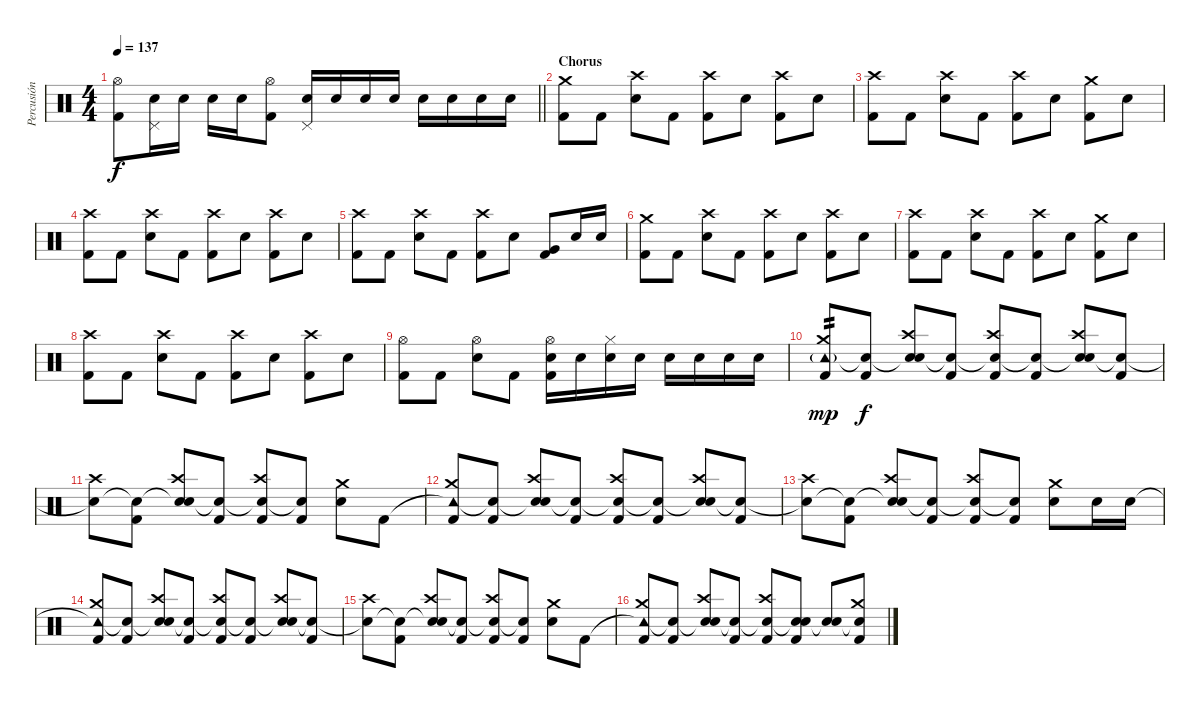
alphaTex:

\track ("Percusión" "Percusión") {instrument percussion}
\staff {score}
\articulation defaults
\ts (4 4)
\tempo 137
\clef neutral
\barLineRight lightlight
\ks c
("Hi-Hat (open)" "Kick (hit) 2").8{dy f} ("Pedal Hi-Hat (hit)" "Electric Snare (hit)").16 "Electric Snare (hit)".16 "Electric Snare (hit)".16 "Electric Snare (hit)".16 ("Hi-Hat (open)" "Kick (hit) 2").8 ("Pedal Hi-Hat (hit)" "Electric Snare (hit)").16 "Electric Snare (hit)".16 "Electric Snare (hit)".16 "Electric Snare (hit)".16 "Electric Snare (hit)".16 "Electric Snare (hit)".16 "Electric Snare (hit)".16 "Electric Snare (hit)".16 |
\section ("" "Chorus")
("Crash medium (hit)" "Kick (hit) 2").8 "Kick (hit) 2".8 ("Crash high (hit)" "Electric Snare (hit)").8 "Kick (hit) 2".8 ("Crash high (hit)" "Kick (hit) 2").8 "Electric Snare (hit)".8 ("Crash high (hit)" "Kick (hit) 2").8 "Electric Snare (hit)".8 |
("Crash high (hit)" "Kick (hit) 2").8 "Kick (hit) 2".8 ("Crash high (hit)" "Electric Snare (hit)").8 "Kick (hit) 2".8 ("Crash high (hit)" "Kick (hit) 2").8 "Electric Snare (hit)".8 ("Crash medium (hit)" "Kick (hit) 2").8 "Electric Snare (hit)".8 |
("Crash high (hit)" "Kick (hit) 2").8 "Kick (hit) 2".8 ("Crash high (hit)" "Electric Snare (hit)").8 "Kick (hit) 2".8 ("Crash high (hit)" "Kick (hit) 2").8 "Electric Snare (hit)".8 ("Crash high (hit)" "Kick (hit) 2").8 "Electric Snare (hit)".8 |
("Crash high (hit)" "Kick (hit) 2").8 "Kick (hit) 2".8 ("Crash high (hit)" "Electric Snare (hit)").8 "Kick (hit) 2".8 ("Crash high (hit)" "Kick (hit) 2").8 "Electric Snare (hit)".8 ("Very Low Tom (hit)" "Kick (hit) 2").8 "Electric Snare (hit)".16 "Electric Snare (hit)".16 |
("Crash medium (hit)" "Kick (hit) 2").8 "Kick (hit) 2".8 ("Crash high (hit)" "Electric Snare (hit)").8 "Kick (hit) 2".8 ("Crash high (hit)" "Kick (hit) 2").8 "Electric Snare (hit)".8 ("Crash high (hit)" "Kick (hit) 2").8 "Electric Snare (hit)".8 |
("Crash high (hit)" "Kick (hit) 2").8 "Kick (hit) 2".8 ("Crash high (hit)" "Electric Snare (hit)").8 "Kick (hit) 2".8 ("Crash high (hit)" "Kick (hit) 2").8 "Electric Snare (hit)".8 ("Crash medium (hit)" "Kick (hit) 2").8 "Electric Snare (hit)".8 |
("Crash high (hit)" "Kick (hit) 2").8 "Kick (hit) 2".8 ("Crash high (hit)" "Electric Snare (hit)").8 "Kick (hit) 2".8 ("Crash high (hit)" "Kick (hit) 2").8 "Electric Snare (hit)".8 ("Crash high (hit)" "Kick (hit) 2").8 "Electric Snare (hit)".8 |
("Hi-Hat (open)" "Kick (hit) 2").8 "Kick (hit) 2".8 ("Hi-Hat (open)" "Electric Snare (hit)").8 "Kick (hit) 2".8 ("Hi-Hat (open)" "Electric Snare (hit)" "Kick (hit) 2").16 "Electric Snare (hit)".16 ("Hi-Hat (closed)" "Electric Snare (hit)").16 "Electric Snare (hit)".16 "Electric Snare (hit)".16 "Electric Snare (hit)".16 "Electric Snare (hit)".16 "Electric Snare (hit)".16 |
("Tambourine (hit)"{g} "Crash medium (hit)" "Kick (hit) 2").8{tp 2 dy mp} ("Snare (hit)"{t} "Kick (hit) 2").8{dy f} ("Snare (hit)"{t} "Crash high (hit)" "Electric Snare (hit)").8 ("Snare (hit)"{t} "Kick (hit) 2").8 ("Snare (hit)"{t} "Crash high (hit)" "Kick (hit) 2").8 ("Snare (hit)"{t} "Kick (hit) 2").8 ("Snare (hit)"{t} "Crash high (hit)" "Electric Snare (hit)").8 ("Snare (hit)"{t} "Kick (hit) 2").8 |
("Snare (hit)"{t} "Crash high (hit)").8 ("Snare (hit)"{t} "Kick (hit) 2").8 ("Snare (hit)"{t} "Crash high (hit)" "Electric Snare (hit)").8 ("Snare (hit)"{t} "Kick (hit) 2").8 ("Snare (hit)"{t} "Crash high (hit)" "Kick (hit) 2").8 ("Snare (hit)"{t} "Kick (hit) 2").8 ("Crash medium (hit)" "Electric Snare (hit)").8 "Kick (hit) 2".8 |
("Tambourine (hit)"{t} "Crash medium (hit)" "Kick (hit) 2").8 ("Snare (hit)"{t} "Kick (hit) 2").8 ("Snare (hit)"{t} "Crash high (hit)" "Electric Snare (hit)").8 ("Snare (hit)"{t} "Kick (hit) 2").8 ("Snare (hit)"{t} "Crash high (hit)" "Kick (hit) 2").8 ("Snare (hit)"{t} "Kick (hit) 2").8 ("Snare (hit)"{t} "Crash high (hit)" "Electric Snare (hit)").8 ("Snare (hit)"{t} "Kick (hit) 2").8 |
("Snare (hit)"{t} "Crash high (hit)").8 ("Snare (hit)"{t} "Kick (hit) 2").8 ("Snare (hit)"{t} "Crash high (hit)" "Electric Snare (hit)").8 ("Snare (hit)"{t} "Kick (hit) 2").8 ("Snare (hit)"{t} "Crash high (hit)" "Kick (hit) 2").8 ("Snare (hit)"{t} "Kick (hit) 2").8 ("Crash medium (hit)" "Electric Snare (hit)").8 "Electric Snare (hit)".16 "Electric Snare (hit)".16 |
("Tambourine (hit)"{t} "Crash medium (hit)" "Kick (hit) 2").8 ("Snare (hit)"{t} "Kick (hit) 2").8 ("Snare (hit)"{t} "Crash high (hit)" "Electric Snare (hit)").8 ("Snare (hit)"{t} "Kick (hit) 2").8 ("Snare (hit)"{t} "Crash high (hit)" "Kick (hit) 2").8 ("Snare (hit)"{t} "Kick (hit) 2").8 ("Snare (hit)"{t} "Crash high (hit)" "Electric Snare (hit)").8 ("Snare (hit)"{t} "Kick (hit) 2").8 |
("Snare (hit)"{t} "Crash high (hit)").8 ("Snare (hit)"{t} "Kick (hit) 2").8 ("Snare (hit)"{t} "Crash high (hit)" "Electric Snare (hit)").8 ("Snare (hit)"{t} "Kick (hit) 2").8 ("Snare (hit)"{t} "Crash high (hit)" "Kick (hit) 2").8 ("Snare (hit)"{t} "Kick (hit) 2").8 ("Crash medium (hit)" "Electric Snare (hit)").8 "Kick (hit) 2".8 |
("Tambourine (hit)"{t} "Crash medium (hit)" "Kick (hit) 2").8 ("Snare (hit)"{t} "Kick (hit) 2").8 ("Snare (hit)"{t} "Crash high (hit)" "Electric Snare (hit)").8 ("Snare (hit)"{t} "Kick (hit) 2").8 ("Snare (hit)"{t} "Crash high (hit)" "Kick (hit) 2").8 ("Snare (hit)"{t} "Electric Snare (hit)" "Kick (hit) 2").8 ("Snare (hit)"{t} "Electric Snare (hit)").8 ("Snare (hit)"{t} "Crash medium (hit)" "Kick (hit) 2").8
